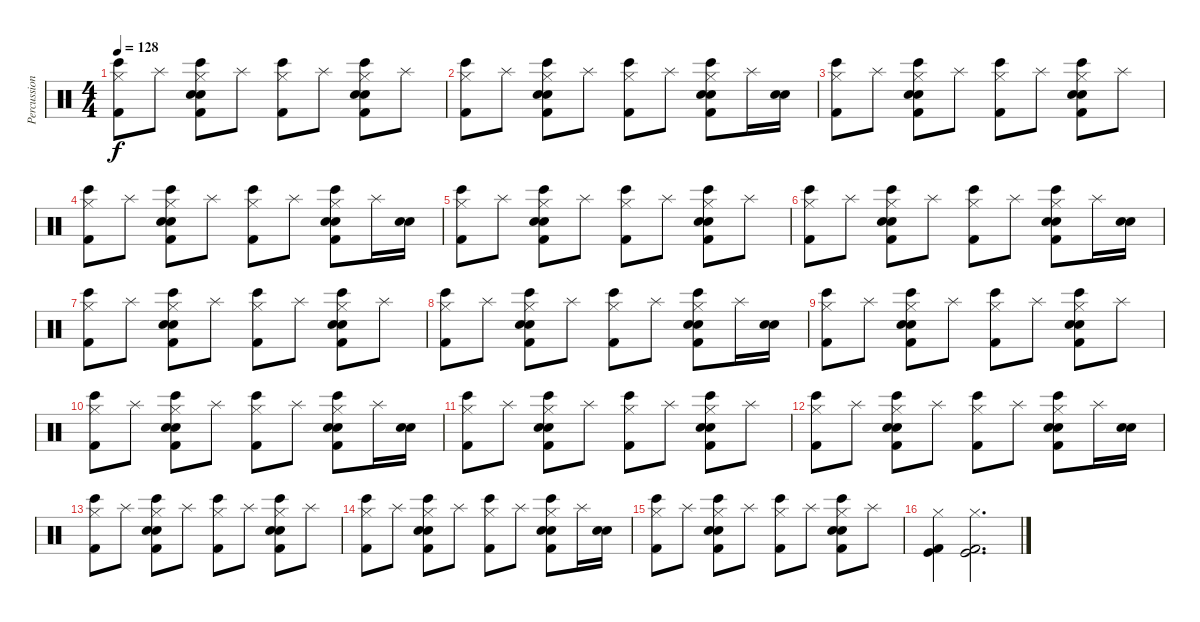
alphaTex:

\track ("Percussion" "Percussion") {instrument percussion}
\staff {score}
\articulation defaults
\ts (4 4)
\tempo 128
\clef neutral
\ks c
("Hi-Hat (closed)" "Bongo High (hit)" "Kick (hit) 2").8{dy f} "Splash (hit)".8 ("Hi-Hat (closed)" "Bongo High (hit)" "Hand Clap (hit)" "Electric Snare (hit)" "Kick (hit) 2").8 "Splash (hit)".8 ("Hi-Hat (closed)" "Bongo High (hit)" "Kick (hit) 2").8 "Splash (hit)".8 ("Hi-Hat (closed)" "Bongo High (hit)" "Hand Clap (hit)" "Electric Snare (hit)" "Kick (hit) 2").8 "Splash (hit)".8 |
("Hi-Hat (closed)" "Bongo High (hit)" "Kick (hit) 2").8 "Splash (hit)".8 ("Hi-Hat (closed)" "Bongo High (hit)" "Hand Clap (hit)" "Electric Snare (hit)" "Kick (hit) 2").8 "Splash (hit)".8 ("Hi-Hat (closed)" "Bongo High (hit)" "Kick (hit) 2").8 "Splash (hit)".8 ("Hi-Hat (closed)" "Bongo High (hit)" "Hand Clap (hit)" "Electric Snare (hit)" "Kick (hit) 2").8 "Splash (hit)".16 ("Hand Clap (hit)" "Electric Snare (hit)").16 |
("Hi-Hat (closed)" "Bongo High (hit)" "Kick (hit) 2").8 "Splash (hit)".8 ("Hi-Hat (closed)" "Bongo High (hit)" "Hand Clap (hit)" "Electric Snare (hit)" "Kick (hit) 2").8 "Splash (hit)".8 ("Hi-Hat (closed)" "Bongo High (hit)" "Kick (hit) 2").8 "Splash (hit)".8 ("Hi-Hat (closed)" "Bongo High (hit)" "Hand Clap (hit)" "Electric Snare (hit)" "Kick (hit) 2").8 "Splash (hit)".8 |
("Hi-Hat (closed)" "Bongo High (hit)" "Kick (hit) 2").8 "Splash (hit)".8 ("Hi-Hat (closed)" "Bongo High (hit)" "Hand Clap (hit)" "Electric Snare (hit)" "Kick (hit) 2").8 "Splash (hit)".8 ("Hi-Hat (closed)" "Bongo High (hit)" "Kick (hit) 2").8 "Splash (hit)".8 ("Hi-Hat (closed)" "Bongo High (hit)" "Hand Clap (hit)" "Electric Snare (hit)" "Kick (hit) 2").8 "Splash (hit)".16 ("Hand Clap (hit)" "Electric Snare (hit)").16 |
("Hi-Hat (closed)" "Bongo High (hit)" "Kick (hit) 2").8 "Splash (hit)".8 ("Hi-Hat (closed)" "Bongo High (hit)" "Hand Clap (hit)" "Electric Snare (hit)" "Kick (hit) 2").8 "Splash (hit)".8 ("Hi-Hat (closed)" "Bongo High (hit)" "Kick (hit) 2").8 "Splash (hit)".8 ("Hi-Hat (closed)" "Bongo High (hit)" "Hand Clap (hit)" "Electric Snare (hit)" "Kick (hit) 2").8 "Splash (hit)".8 |
("Hi-Hat (closed)" "Bongo High (hit)" "Kick (hit) 2").8 "Splash (hit)".8 ("Hi-Hat (closed)" "Bongo High (hit)" "Hand Clap (hit)" "Electric Snare (hit)" "Kick (hit) 2").8 "Splash (hit)".8 ("Hi-Hat (closed)" "Bongo High (hit)" "Kick (hit) 2").8 "Splash (hit)".8 ("Hi-Hat (closed)" "Bongo High (hit)" "Hand Clap (hit)" "Electric Snare (hit)" "Kick (hit) 2").8 "Splash (hit)".16 ("Hand Clap (hit)" "Electric Snare (hit)").16 |
("Hi-Hat (closed)" "Bongo High (hit)" "Kick (hit) 2").8 "Splash (hit)".8 ("Hi-Hat (closed)" "Bongo High (hit)" "Hand Clap (hit)" "Electric Snare (hit)" "Kick (hit) 2").8 "Splash (hit)".8 ("Hi-Hat (closed)" "Bongo High (hit)" "Kick (hit) 2").8 "Splash (hit)".8 ("Hi-Hat (closed)" "Bongo High (hit)" "Hand Clap (hit)" "Electric Snare (hit)" "Kick (hit) 2").8 "Splash (hit)".8 |
("Hi-Hat (closed)" "Bongo High (hit)" "Kick (hit) 2").8 "Splash (hit)".8 ("Hi-Hat (closed)" "Bongo High (hit)" "Hand Clap (hit)" "Electric Snare (hit)" "Kick (hit) 2").8 "Splash (hit)".8 ("Hi-Hat (closed)" "Bongo High (hit)" "Kick (hit) 2").8 "Splash (hit)".8 ("Hi-Hat (closed)" "Bongo High (hit)" "Hand Clap (hit)" "Electric Snare (hit)" "Kick (hit) 2").8 "Splash (hit)".16 ("Hand Clap (hit)" "Electric Snare (hit)").16 |
("Hi-Hat (closed)" "Bongo High (hit)" "Kick (hit) 2").8 "Splash (hit)".8 ("Hi-Hat (closed)" "Bongo High (hit)" "Hand Clap (hit)" "Electric Snare (hit)" "Kick (hit) 2").8 "Splash (hit)".8 ("Hi-Hat (closed)" "Bongo High (hit)" "Kick (hit) 2").8 "Splash (hit)".8 ("Hi-Hat (closed)" "Bongo High (hit)" "Hand Clap (hit)" "Electric Snare (hit)" "Kick (hit) 2").8 "Splash (hit)".8 |
("Hi-Hat (closed)" "Bongo High (hit)" "Kick (hit) 2").8 "Splash (hit)".8 ("Hi-Hat (closed)" "Bongo High (hit)" "Hand Clap (hit)" "Electric Snare (hit)" "Kick (hit) 2").8 "Splash (hit)".8 ("Hi-Hat (closed)" "Bongo High (hit)" "Kick (hit) 2").8 "Splash (hit)".8 ("Hi-Hat (closed)" "Bongo High (hit)" "Hand Clap (hit)" "Electric Snare (hit)" "Kick (hit) 2").8 "Splash (hit)".16 ("Hand Clap (hit)" "Electric Snare (hit)").16 |
("Hi-Hat (closed)" "Bongo High (hit)" "Kick (hit) 2").8 "Splash (hit)".8 ("Hi-Hat (closed)" "Bongo High (hit)" "Hand Clap (hit)" "Electric Snare (hit)" "Kick (hit) 2").8 "Splash (hit)".8 ("Hi-Hat (closed)" "Bongo High (hit)" "Kick (hit) 2").8 "Splash (hit)".8 ("Hi-Hat (closed)" "Bongo High (hit)" "Hand Clap (hit)" "Electric Snare (hit)" "Kick (hit) 2").8 "Splash (hit)".8 |
("Hi-Hat (closed)" "Bongo High (hit)" "Kick (hit) 2").8 "Splash (hit)".8 ("Hi-Hat (closed)" "Bongo High (hit)" "Hand Clap (hit)" "Electric Snare (hit)" "Kick (hit) 2").8 "Splash (hit)".8 ("Hi-Hat (closed)" "Bongo High (hit)" "Kick (hit) 2").8 "Splash (hit)".8 ("Hi-Hat (closed)" "Bongo High (hit)" "Hand Clap (hit)" "Electric Snare (hit)" "Kick (hit) 2").8 "Splash (hit)".16 ("Hand Clap (hit)" "Electric Snare (hit)").16 |
("Hi-Hat (closed)" "Bongo High (hit)" "Kick (hit) 2").8 "Splash (hit)".8 ("Hi-Hat (closed)" "Bongo High (hit)" "Hand Clap (hit)" "Electric Snare (hit)" "Kick (hit) 2").8 "Splash (hit)".8 ("Hi-Hat (closed)" "Bongo High (hit)" "Kick (hit) 2").8 "Splash (hit)".8 ("Hi-Hat (closed)" "Bongo High (hit)" "Hand Clap (hit)" "Electric Snare (hit)" "Kick (hit) 2").8 "Splash (hit)".8 |
("Hi-Hat (closed)" "Bongo High (hit)" "Kick (hit) 2").8 "Splash (hit)".8 ("Hi-Hat (closed)" "Bongo High (hit)" "Hand Clap (hit)" "Electric Snare (hit)" "Kick (hit) 2").8 "Splash (hit)".8 ("Hi-Hat (closed)" "Bongo High (hit)" "Kick (hit) 2").8 "Splash (hit)".8 ("Hi-Hat (closed)" "Bongo High (hit)" "Hand Clap (hit)" "Electric Snare (hit)" "Kick (hit) 2").8 "Splash (hit)".16 ("Hand Clap (hit)" "Electric Snare (hit)").16 |
("Hi-Hat (closed)" "Bongo High (hit)" "Kick (hit) 2").8 "Splash (hit)".8 ("Hi-Hat (closed)" "Bongo High (hit)" "Hand Clap (hit)" "Electric Snare (hit)" "Kick (hit) 2").8 "Splash (hit)".8 ("Hi-Hat (closed)" "Bongo High (hit)" "Kick (hit) 2").8 "Splash (hit)".8 ("Hi-Hat (closed)" "Bongo High (hit)" "Hand Clap (hit)" "Electric Snare (hit)" "Kick (hit) 2").8 "Splash (hit)".8 |
("Hi-Hat (closed)" "Kick (hit)" "Kick (hit) 2").4 ("Hi-Hat (closed)" "Kick (hit)" "Kick (hit) 2").2{d}
